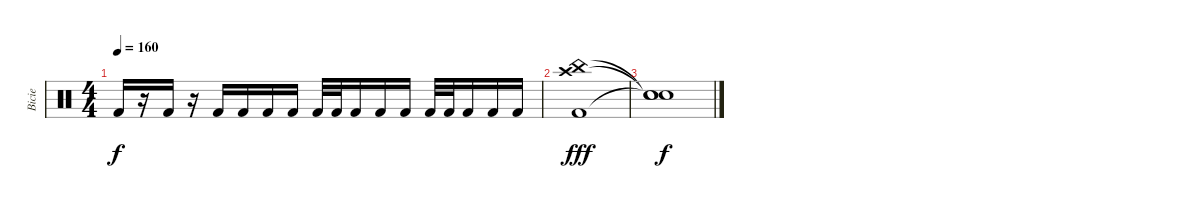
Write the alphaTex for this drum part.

\track ("Bicie" "Bicie") {instrument percussion}
\staff {score}
\articulation defaults
\ts (4 4)
\tempo 160
\clef neutral
\ks c "Kick (hit) 2".16{dy f}
r.16 "Kick (hit) 2".16 r.16 "Kick (hit) 2".16 "Kick (hit) 2".16 "Kick (hit) 2".16 "Kick (hit) 2".16 "Kick (hit) 2".32 "Kick (hit) 2".32 "Kick (hit) 2".16 "Kick (hit) 2".16 "Kick (hit) 2".16 "Kick (hit) 2".32 "Kick (hit) 2".32 "Kick (hit) 2".16 "Kick (hit) 2".16 "Kick (hit) 2".16 |
("Crash high (hit)" "China (hit)" "Kick (hit) 2").1{dy fff} |
("Snare (hit)"{t} "Snare (hit)"{t} "Snare (hit)"{t}).1{dy f}
